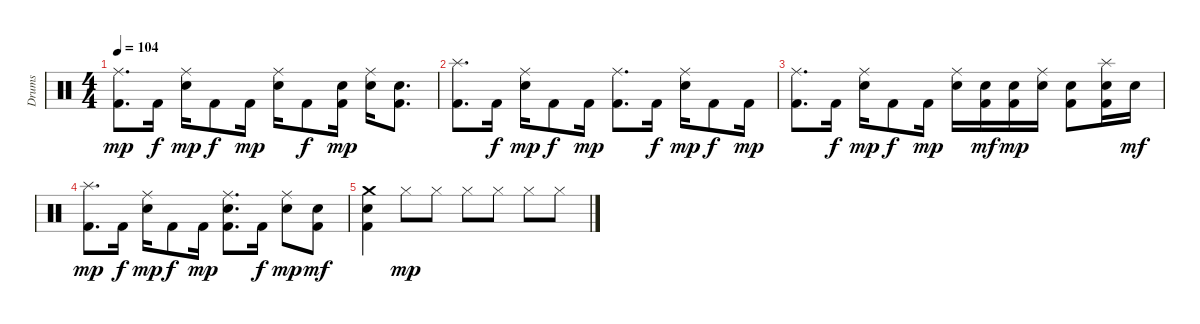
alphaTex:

\track ("Drums" "Drums") {instrument percussion}
\staff {score}
\articulation defaults
\ts (4 4)
\tempo 104
\clef neutral
\ks c
("Ride (middle)" "Kick (hit) 2").8{d dy mp} "Kick (hit) 2".16{dy f} ("Ride (middle)" "Electric Snare (hit)").16{dy mp} "Kick (hit) 2".8{dy f} "Kick (hit) 2".16{dy mp} ("Ride (middle)" "Electric Snare (hit)").16 "Kick (hit) 2".8{dy f} ("Electric Snare (hit)" "Kick (hit) 2").16{dy mp} ("Ride (middle)" "Electric Snare (hit)").16 ("Electric Snare (hit)" "Kick (hit) 2").8{d} |
("Splash (hit)" "Kick (hit) 2").8{d} "Kick (hit) 2".16{dy f} ("Ride (middle)" "Electric Snare (hit)").16{dy mp} "Kick (hit) 2".8{dy f} "Kick (hit) 2".16{dy mp} ("Ride (middle)" "Kick (hit) 2").8{d} "Kick (hit) 2".16{dy f} ("Ride (middle)" "Electric Snare (hit)").16{dy mp} "Kick (hit) 2".8{dy f} "Kick (hit) 2".16{dy mp} |
("Ride (middle)" "Kick (hit) 2").8{d} "Kick (hit) 2".16{dy f} ("Ride (middle)" "Electric Snare (hit)").16{dy mp} "Kick (hit) 2".8{dy f} "Kick (hit) 2".16{dy mp} ("Ride (middle)" "Electric Snare (hit)").16 ("Electric Snare (hit)" "Kick (hit) 2").16{dy mf} ("Electric Snare (hit)" "Kick (hit) 2").16{dy mp} ("Ride (middle)" "Electric Snare (hit)").16 ("Electric Snare (hit)" "Kick (hit) 2").8 ("Splash (hit)" "Electric Snare (hit)" "Kick (hit) 2").16 "Electric Snare (hit)".16{dy mf} |
("Splash (hit)" "Kick (hit) 2").8{d dy mp} "Kick (hit) 2".16{dy f} ("Ride (middle)" "Electric Snare (hit)").16{dy mp} "Kick (hit) 2".8{dy f} "Kick (hit) 2".16{dy mp} ("Ride (middle)" "Electric Snare (hit)" "Kick (hit) 2").8{d} "Kick (hit) 2".16{dy f} ("Ride (middle)" "Electric Snare (hit)").8{dy mp} ("Electric Snare (hit)" "Kick (hit) 2").8{dy mf} |
("Crash medium (hit)" "Electric Snare (hit)" "Kick (hit) 2").4 "Hi-Hat (closed)".8{dy mp} "Hi-Hat (closed)".8 "Hi-Hat (closed)".8 "Hi-Hat (closed)".8 "Hi-Hat (closed)".8 "Hi-Hat (closed)".8
